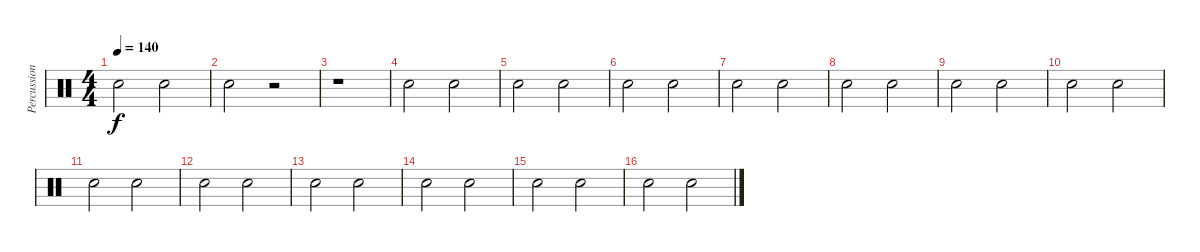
\track ("Percussions" "Percussion") {instrument percussion}
\staff {score}
\articulation defaults
\ts (4 4)
\tempo 140
\clef neutral
\ks c "Hand Clap (hit)".2{dy f} "Hand Clap (hit)".2
|
"Hand Clap (hit)".2 r.2 |
r.1 |
"Hand Clap (hit)".2 "Hand Clap (hit)".2 |
"Hand Clap (hit)".2 "Hand Clap (hit)".2 |
"Hand Clap (hit)".2 "Hand Clap (hit)".2 |
"Hand Clap (hit)".2 "Hand Clap (hit)".2 |
"Hand Clap (hit)".2 "Hand Clap (hit)".2 |
"Hand Clap (hit)".2 "Hand Clap (hit)".2 |
"Hand Clap (hit)".2 "Hand Clap (hit)".2 |
"Hand Clap (hit)".2 "Hand Clap (hit)".2 |
"Hand Clap (hit)".2 "Hand Clap (hit)".2 |
"Hand Clap (hit)".2 "Hand Clap (hit)".2 |
"Hand Clap (hit)".2 "Hand Clap (hit)".2 |
"Hand Clap (hit)".2 "Hand Clap (hit)".2 |
"Hand Clap (hit)".2 "Hand Clap (hit)".2
